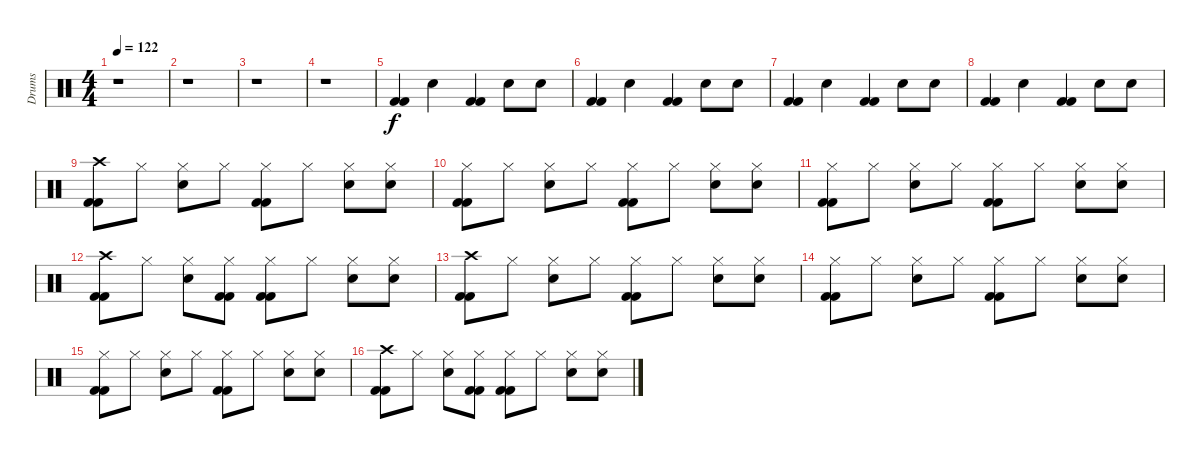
\track ("Drums" "Drums") {instrument percussion}
\staff {score}
\articulation defaults
\ts (4 4)
\tempo 122
\clef neutral
\ks c
r.1{dy f} |
r.1 |
r.1 |
r.1 |
("Kick (hit) 2" "Kick (hit) 2").4 "Snare (hit) 2".4 ("Kick (hit) 2" "Kick (hit) 2").4 "Snare (hit) 2".8 "Snare (hit) 2".8 |
("Kick (hit) 2" "Kick (hit) 2").4 "Snare (hit) 2".4 ("Kick (hit) 2" "Kick (hit) 2").4 "Snare (hit) 2".8 "Snare (hit) 2".8 |
("Kick (hit) 2" "Kick (hit) 2").4 "Snare (hit) 2".4 ("Kick (hit) 2" "Kick (hit) 2").4 "Snare (hit) 2".8 "Snare (hit) 2".8 |
("Kick (hit) 2" "Kick (hit) 2").4 "Snare (hit) 2".4 ("Kick (hit) 2" "Kick (hit) 2").4 "Snare (hit) 2".8 "Snare (hit) 2".8 |
("Crash high (hit)" "Kick (hit) 2" "Kick (hit) 2").8 "Hi-Hat (closed)".8 ("Hi-Hat (closed)" "Snare (hit) 2").8 "Hi-Hat (closed)".8 ("Hi-Hat (closed)" "Kick (hit) 2" "Kick (hit) 2").8 "Hi-Hat (closed)".8 ("Hi-Hat (closed)" "Snare (hit) 2").8 ("Hi-Hat (closed)" "Snare (hit) 2").8 |
("Hi-Hat (closed)" "Kick (hit) 2" "Kick (hit) 2").8 "Hi-Hat (closed)".8 ("Hi-Hat (closed)" "Snare (hit) 2").8 "Hi-Hat (closed)".8 ("Hi-Hat (closed)" "Kick (hit) 2" "Kick (hit) 2").8 "Hi-Hat (closed)".8 ("Hi-Hat (closed)" "Snare (hit) 2").8 ("Hi-Hat (closed)" "Snare (hit) 2").8 |
("Hi-Hat (closed)" "Kick (hit) 2" "Kick (hit) 2").8 "Hi-Hat (closed)".8 ("Hi-Hat (closed)" "Snare (hit) 2").8 "Hi-Hat (closed)".8 ("Hi-Hat (closed)" "Kick (hit) 2" "Kick (hit) 2").8 "Hi-Hat (closed)".8 ("Hi-Hat (closed)" "Snare (hit) 2").8 ("Hi-Hat (closed)" "Snare (hit) 2").8 |
("Crash high (hit)" "Kick (hit) 2" "Kick (hit) 2").8 "Hi-Hat (closed)".8 ("Hi-Hat (closed)" "Snare (hit) 2").8 ("Hi-Hat (closed)" "Kick (hit) 2" "Kick (hit) 2").8 ("Hi-Hat (closed)" "Kick (hit) 2" "Kick (hit) 2").8 "Hi-Hat (closed)".8 ("Hi-Hat (closed)" "Snare (hit) 2").8 ("Hi-Hat (closed)" "Snare (hit) 2").8 |
("Crash high (hit)" "Kick (hit) 2" "Kick (hit) 2").8 "Hi-Hat (closed)".8 ("Hi-Hat (closed)" "Snare (hit) 2").8 "Hi-Hat (closed)".8 ("Hi-Hat (closed)" "Kick (hit) 2" "Kick (hit) 2").8 "Hi-Hat (closed)".8 ("Hi-Hat (closed)" "Snare (hit) 2").8 ("Hi-Hat (closed)" "Snare (hit) 2").8 |
("Hi-Hat (closed)" "Kick (hit) 2" "Kick (hit) 2").8 "Hi-Hat (closed)".8 ("Hi-Hat (closed)" "Snare (hit) 2").8 "Hi-Hat (closed)".8 ("Hi-Hat (closed)" "Kick (hit) 2" "Kick (hit) 2").8 "Hi-Hat (closed)".8 ("Hi-Hat (closed)" "Snare (hit) 2").8 ("Hi-Hat (closed)" "Snare (hit) 2").8 |
("Hi-Hat (closed)" "Kick (hit) 2" "Kick (hit) 2").8 "Hi-Hat (closed)".8 ("Hi-Hat (closed)" "Snare (hit) 2").8 "Hi-Hat (closed)".8 ("Hi-Hat (closed)" "Kick (hit) 2" "Kick (hit) 2").8 "Hi-Hat (closed)".8 ("Hi-Hat (closed)" "Snare (hit) 2").8 ("Hi-Hat (closed)" "Snare (hit) 2").8 |
("Crash high (hit)" "Kick (hit) 2" "Kick (hit) 2").8 "Hi-Hat (closed)".8 ("Hi-Hat (closed)" "Snare (hit) 2").8 ("Hi-Hat (closed)" "Kick (hit) 2" "Kick (hit) 2").8 ("Hi-Hat (closed)" "Kick (hit) 2" "Kick (hit) 2").8 "Hi-Hat (closed)".8 ("Hi-Hat (closed)" "Snare (hit) 2").8 ("Hi-Hat (closed)" "Snare (hit) 2").8
